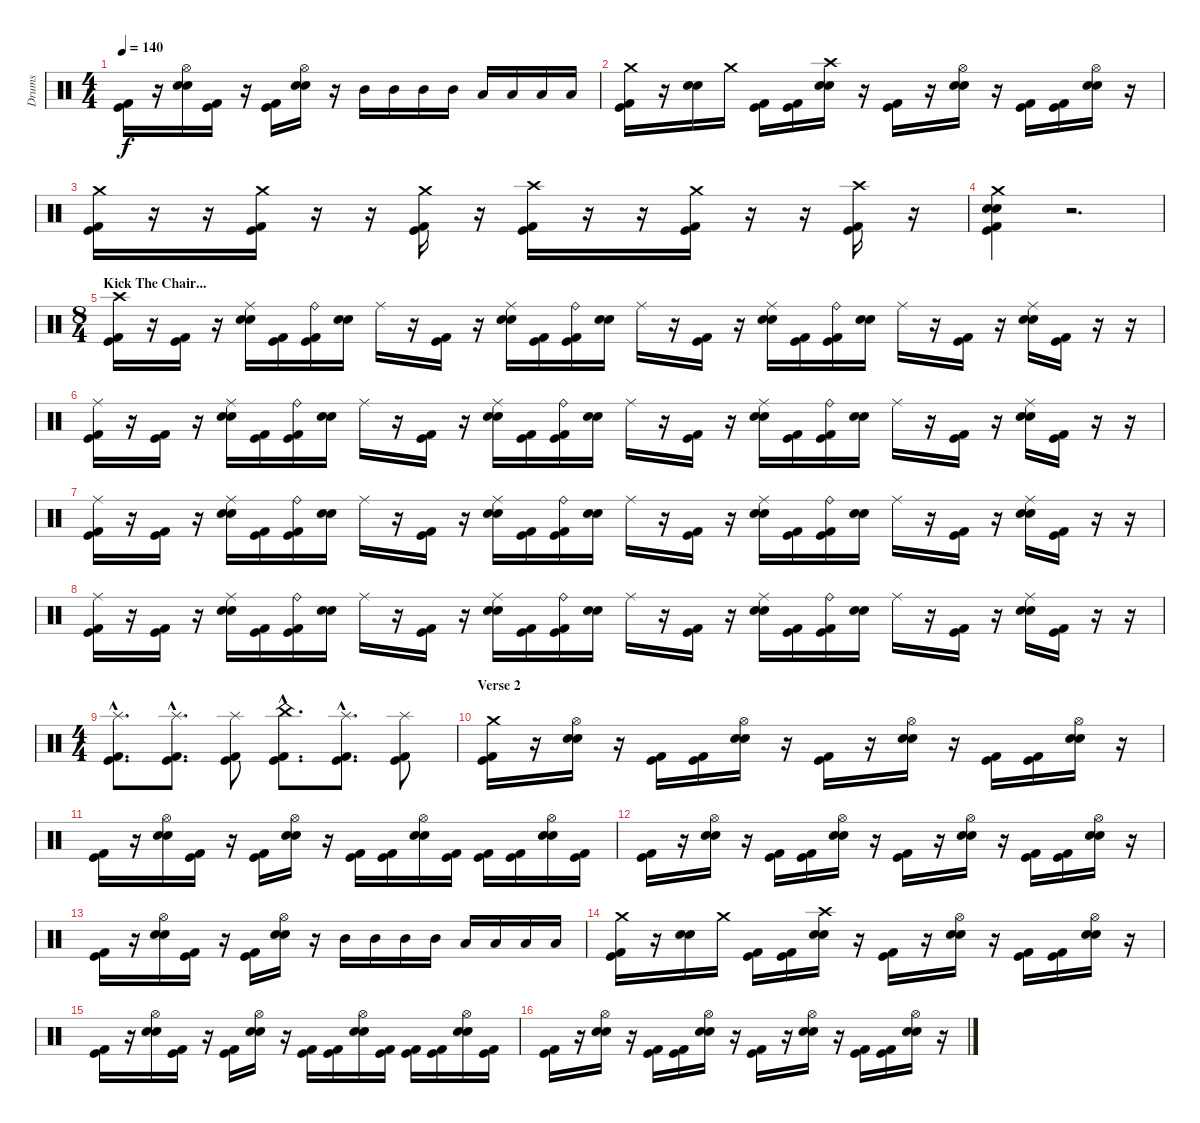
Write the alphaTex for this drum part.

\track ("Drums" "Drums") {instrument percussion}
\staff {score}
\articulation defaults
\ts (4 4)
\tempo 140
\clef neutral
\ks c
("Kick (hit) 2" "Kick (hit)").16{dy f} r.16 ("Hi-Hat (open)" "Snare (hit) 2" "Electric Snare (hit)").16 ("Kick (hit) 2" "Kick (hit)").16 r.16 ("Kick (hit) 2" "Kick (hit)").16 ("Hi-Hat (open)" "Snare (hit) 2" "Electric Snare (hit)").16 r.16 "Mid Tom (hit)".16 "Mid Tom (hit)".16 "Mid Tom (hit)".16 "Mid Tom (hit)".16 "Low Tom (hit)".16 "Low Tom (hit)".16 "Low Tom (hit)".16 "Low Tom (hit)".16 |
("Crash medium (hit)" "Kick (hit) 2" "Kick (hit)").16 r.16 ("Snare (hit) 2" "Electric Snare (hit)").16 "Crash medium (hit)".16 ("Kick (hit) 2" "Kick (hit)").16 ("Kick (hit) 2" "Kick (hit)").16 ("Crash high (hit)" "Snare (hit) 2" "Electric Snare (hit)").16 r.16 ("Kick (hit) 2" "Kick (hit)").16 r.16 ("Hi-Hat (open)" "Snare (hit) 2" "Electric Snare (hit)").16 r.16 ("Kick (hit) 2" "Kick (hit)").16 ("Kick (hit) 2" "Kick (hit)").16 ("Hi-Hat (open)" "Snare (hit) 2" "Electric Snare (hit)").16 r.16 |
("Crash medium (hit)" "Kick (hit) 2" "Kick (hit)").16 r.16 r.16 ("Crash medium (hit)" "Kick (hit) 2" "Kick (hit)").16 r.16 r.16 ("Crash medium (hit)" "Kick (hit) 2" "Kick (hit)").16 r.16 ("Crash high (hit)" "Kick (hit) 2" "Kick (hit)").16 r.16 r.16 ("Crash medium (hit)" "Kick (hit) 2" "Kick (hit)").16 r.16 r.16 ("Crash high (hit)" "Kick (hit) 2" "Kick (hit)").16 r.16 |
("Crash medium (hit)" "Snare (hit) 2" "Electric Snare (hit)" "Kick (hit) 2" "Kick (hit)").4 r.2{d} |
\ts (8 4)
\section ("" "Kick The Chair...")
("Crash high (hit)" "Kick (hit) 2" "Kick (hit)").16 r.16 ("Kick (hit) 2" "Kick (hit)").16 r.16 ("Ride (middle)" "Snare (hit) 2" "Electric Snare (hit)").16 ("Kick (hit) 2" "Kick (hit)").16 ("Ride (bell)" "Kick (hit) 2" "Kick (hit)").16 ("Snare (hit) 2" "Electric Snare (hit)").16 "Ride (middle)".16 r.16 ("Kick (hit) 2" "Kick (hit)").16 r.16 ("Ride (middle)" "Snare (hit) 2" "Electric Snare (hit)").16 ("Kick (hit) 2" "Kick (hit)").16 ("Ride (bell)" "Kick (hit) 2" "Kick (hit)").16 ("Snare (hit) 2" "Electric Snare (hit)").16 "Ride (middle)".16 r.16 ("Kick (hit) 2" "Kick (hit)").16 r.16 ("Ride (middle)" "Snare (hit) 2" "Electric Snare (hit)").16 ("Kick (hit) 2" "Kick (hit)").16 ("Ride (bell)" "Kick (hit) 2" "Kick (hit)").16 ("Snare (hit) 2" "Electric Snare (hit)").16 "Ride (middle)".16 r.16 ("Kick (hit) 2" "Kick (hit)").16 r.16 ("Ride (middle)" "Snare (hit) 2" "Electric Snare (hit)").16 ("Kick (hit) 2" "Kick (hit)").16 r.16 r.16 |
("Ride (middle)" "Kick (hit) 2" "Kick (hit)").16 r.16 ("Kick (hit) 2" "Kick (hit)").16 r.16 ("Ride (middle)" "Snare (hit) 2" "Electric Snare (hit)").16 ("Kick (hit) 2" "Kick (hit)").16 ("Ride (bell)" "Kick (hit) 2" "Kick (hit)").16 ("Snare (hit) 2" "Electric Snare (hit)").16 "Ride (middle)".16 r.16 ("Kick (hit) 2" "Kick (hit)").16 r.16 ("Ride (middle)" "Snare (hit) 2" "Electric Snare (hit)").16 ("Kick (hit) 2" "Kick (hit)").16 ("Ride (bell)" "Kick (hit) 2" "Kick (hit)").16 ("Snare (hit) 2" "Electric Snare (hit)").16 "Ride (middle)".16 r.16 ("Kick (hit) 2" "Kick (hit)").16 r.16 ("Ride (middle)" "Snare (hit) 2" "Electric Snare (hit)").16 ("Kick (hit) 2" "Kick (hit)").16 ("Ride (bell)" "Kick (hit) 2" "Kick (hit)").16 ("Snare (hit) 2" "Electric Snare (hit)").16 "Ride (middle)".16 r.16 ("Kick (hit) 2" "Kick (hit)").16 r.16 ("Ride (middle)" "Snare (hit) 2" "Electric Snare (hit)").16 ("Kick (hit) 2" "Kick (hit)").16 r.16 r.16 |
("Ride (middle)" "Kick (hit) 2" "Kick (hit)").16 r.16 ("Kick (hit) 2" "Kick (hit)").16 r.16 ("Ride (middle)" "Snare (hit) 2" "Electric Snare (hit)").16 ("Kick (hit) 2" "Kick (hit)").16 ("Ride (bell)" "Kick (hit) 2" "Kick (hit)").16 ("Snare (hit) 2" "Electric Snare (hit)").16 "Ride (middle)".16 r.16 ("Kick (hit) 2" "Kick (hit)").16 r.16 ("Ride (middle)" "Snare (hit) 2" "Electric Snare (hit)").16 ("Kick (hit) 2" "Kick (hit)").16 ("Ride (bell)" "Kick (hit) 2" "Kick (hit)").16 ("Snare (hit) 2" "Electric Snare (hit)").16 "Ride (middle)".16 r.16 ("Kick (hit) 2" "Kick (hit)").16 r.16 ("Ride (middle)" "Snare (hit) 2" "Electric Snare (hit)").16 ("Kick (hit) 2" "Kick (hit)").16 ("Ride (bell)" "Kick (hit) 2" "Kick (hit)").16 ("Snare (hit) 2" "Electric Snare (hit)").16 "Ride (middle)".16 r.16 ("Kick (hit) 2" "Kick (hit)").16 r.16 ("Ride (middle)" "Snare (hit) 2" "Electric Snare (hit)").16 ("Kick (hit) 2" "Kick (hit)").16 r.16 r.16 |
("Ride (middle)" "Kick (hit) 2" "Kick (hit)").16 r.16 ("Kick (hit) 2" "Kick (hit)").16 r.16 ("Ride (middle)" "Snare (hit) 2" "Electric Snare (hit)").16 ("Kick (hit) 2" "Kick (hit)").16 ("Ride (bell)" "Kick (hit) 2" "Kick (hit)").16 ("Snare (hit) 2" "Electric Snare (hit)").16 "Ride (middle)".16 r.16 ("Kick (hit) 2" "Kick (hit)").16 r.16 ("Ride (middle)" "Snare (hit) 2" "Electric Snare (hit)").16 ("Kick (hit) 2" "Kick (hit)").16 ("Ride (bell)" "Kick (hit) 2" "Kick (hit)").16 ("Snare (hit) 2" "Electric Snare (hit)").16 "Ride (middle)".16 r.16 ("Kick (hit) 2" "Kick (hit)").16 r.16 ("Ride (middle)" "Snare (hit) 2" "Electric Snare (hit)").16 ("Kick (hit) 2" "Kick (hit)").16 ("Ride (bell)" "Kick (hit) 2" "Kick (hit)").16 ("Snare (hit) 2" "Electric Snare (hit)").16 "Ride (middle)".16 r.16 ("Kick (hit) 2" "Kick (hit)").16 r.16 ("Ride (middle)" "Snare (hit) 2" "Electric Snare (hit)").16 ("Kick (hit) 2" "Kick (hit)").16 r.16 r.16 |
\ts (4 4)
("Splash (hit)"{hac} "Kick (hit) 2"{hac} "Kick (hit)"{hac}).8{d} ("Splash (hit)"{hac} "Kick (hit) 2"{hac} "Kick (hit)"{hac}).8{d} ("Splash (hit)" "Kick (hit) 2" "Kick (hit)").8 ("China (hit)"{hac} "Kick (hit) 2"{hac} "Kick (hit)"{hac}).8{d} ("Splash (hit)"{hac} "Kick (hit) 2"{hac} "Kick (hit)"{hac}).8{d} ("Splash (hit)" "Kick (hit) 2" "Kick (hit)").8 |
\section ("" "Verse 2")
("Crash medium (hit)" "Kick (hit) 2" "Kick (hit)").16 r.16 ("Hi-Hat (open)" "Snare (hit) 2" "Electric Snare (hit)").16 r.16 ("Kick (hit) 2" "Kick (hit)").16 ("Kick (hit) 2" "Kick (hit)").16 ("Hi-Hat (open)" "Snare (hit) 2" "Electric Snare (hit)").16 r.16 ("Kick (hit) 2" "Kick (hit)").16 r.16 ("Hi-Hat (open)" "Snare (hit) 2" "Electric Snare (hit)").16 r.16 ("Kick (hit) 2" "Kick (hit)").16 ("Kick (hit) 2" "Kick (hit)").16 ("Hi-Hat (open)" "Snare (hit) 2" "Electric Snare (hit)").16 r.16 |
("Kick (hit) 2" "Kick (hit)").16 r.16 ("Hi-Hat (open)" "Snare (hit) 2" "Electric Snare (hit)").16 ("Kick (hit) 2" "Kick (hit)").16 r.16 ("Kick (hit) 2" "Kick (hit)").16 ("Hi-Hat (open)" "Snare (hit) 2" "Electric Snare (hit)").16 r.16 ("Kick (hit) 2" "Kick (hit)").16 ("Kick (hit) 2" "Kick (hit)").16 ("Hi-Hat (open)" "Snare (hit) 2" "Electric Snare (hit)").16 ("Kick (hit) 2" "Kick (hit)").16 ("Kick (hit) 2" "Kick (hit)").16 ("Kick (hit) 2" "Kick (hit)").16 ("Hi-Hat (open)" "Snare (hit) 2" "Electric Snare (hit)").16 ("Kick (hit) 2" "Kick (hit)").16 |
("Kick (hit) 2" "Kick (hit)").16 r.16 ("Hi-Hat (open)" "Snare (hit) 2" "Electric Snare (hit)").16 r.16 ("Kick (hit) 2" "Kick (hit)").16 ("Kick (hit) 2" "Kick (hit)").16 ("Hi-Hat (open)" "Snare (hit) 2" "Electric Snare (hit)").16 r.16 ("Kick (hit) 2" "Kick (hit)").16 r.16 ("Hi-Hat (open)" "Snare (hit) 2" "Electric Snare (hit)").16 r.16 ("Kick (hit) 2" "Kick (hit)").16 ("Kick (hit) 2" "Kick (hit)").16 ("Hi-Hat (open)" "Snare (hit) 2" "Electric Snare (hit)").16 r.16 |
("Kick (hit) 2" "Kick (hit)").16 r.16 ("Hi-Hat (open)" "Snare (hit) 2" "Electric Snare (hit)").16 ("Kick (hit) 2" "Kick (hit)").16 r.16 ("Kick (hit) 2" "Kick (hit)").16 ("Hi-Hat (open)" "Snare (hit) 2" "Electric Snare (hit)").16 r.16 "Mid Tom (hit)".16 "Mid Tom (hit)".16 "Mid Tom (hit)".16 "Mid Tom (hit)".16 "Low Tom (hit)".16 "Low Tom (hit)".16 "Low Tom (hit)".16 "Low Tom (hit)".16 |
("Crash medium (hit)" "Kick (hit) 2" "Kick (hit)").16 r.16 ("Snare (hit) 2" "Electric Snare (hit)").16 "Crash medium (hit)".16 ("Kick (hit) 2" "Kick (hit)").16 ("Kick (hit) 2" "Kick (hit)").16 ("Crash high (hit)" "Snare (hit) 2" "Electric Snare (hit)").16 r.16 ("Kick (hit) 2" "Kick (hit)").16 r.16 ("Hi-Hat (open)" "Snare (hit) 2" "Electric Snare (hit)").16 r.16 ("Kick (hit) 2" "Kick (hit)").16 ("Kick (hit) 2" "Kick (hit)").16 ("Hi-Hat (open)" "Snare (hit) 2" "Electric Snare (hit)").16 r.16 |
("Kick (hit) 2" "Kick (hit)").16 r.16 ("Hi-Hat (open)" "Snare (hit) 2" "Electric Snare (hit)").16 ("Kick (hit) 2" "Kick (hit)").16 r.16 ("Kick (hit) 2" "Kick (hit)").16 ("Hi-Hat (open)" "Snare (hit) 2" "Electric Snare (hit)").16 r.16 ("Kick (hit) 2" "Kick (hit)").16 ("Kick (hit) 2" "Kick (hit)").16 ("Hi-Hat (open)" "Snare (hit) 2" "Electric Snare (hit)").16 ("Kick (hit) 2" "Kick (hit)").16 ("Kick (hit) 2" "Kick (hit)").16 ("Kick (hit) 2" "Kick (hit)").16 ("Hi-Hat (open)" "Snare (hit) 2" "Electric Snare (hit)").16 ("Kick (hit) 2" "Kick (hit)").16 |
("Kick (hit) 2" "Kick (hit)").16 r.16 ("Hi-Hat (open)" "Snare (hit) 2" "Electric Snare (hit)").16 r.16 ("Kick (hit) 2" "Kick (hit)").16 ("Kick (hit) 2" "Kick (hit)").16 ("Hi-Hat (open)" "Snare (hit) 2" "Electric Snare (hit)").16 r.16 ("Kick (hit) 2" "Kick (hit)").16 r.16 ("Hi-Hat (open)" "Snare (hit) 2" "Electric Snare (hit)").16 r.16 ("Kick (hit) 2" "Kick (hit)").16 ("Kick (hit) 2" "Kick (hit)").16 ("Hi-Hat (open)" "Snare (hit) 2" "Electric Snare (hit)").16 r.16
